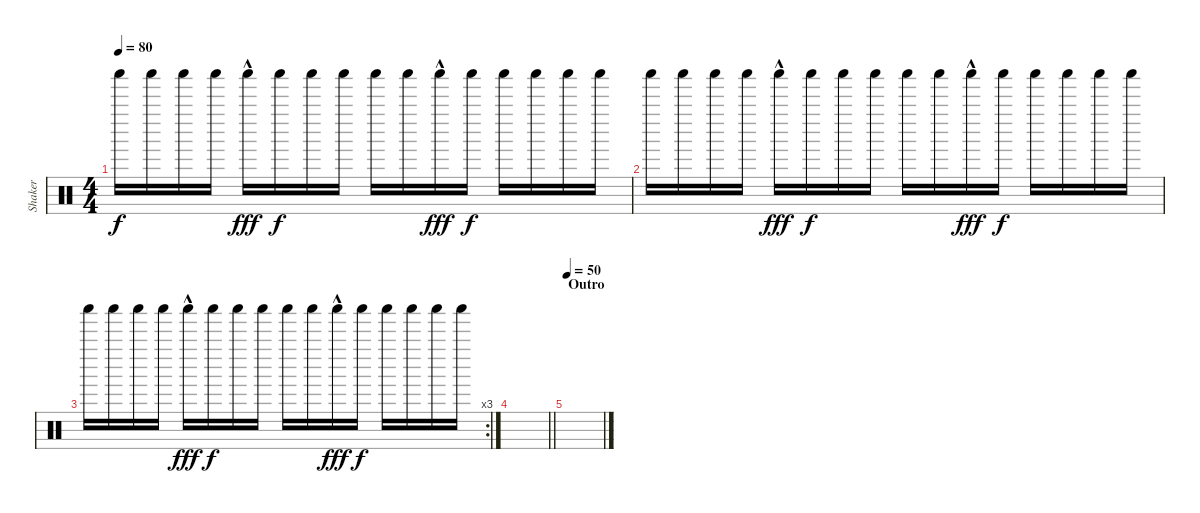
\track ("Shaker" "Shaker") {instrument percussion}
\staff {score}
\articulation defaults
\ts (4 4)
\tempo 80
\clef neutral
\ks c "Shaker (hit)".16{dy f} "Shaker (hit)".16 "Shaker (hit)".16 "Shaker (hit)".16 "Shaker (hit)"{hac}.16{dy fff} "Shaker (hit)".16{dy f} "Shaker (hit)".16 "Shaker (hit)".16 "Shaker (hit)".16 "Shaker (hit)".16 "Shaker (hit)"{hac}.16{dy fff} "Shaker (hit)".16{dy f} "Shaker (hit)".16 "Shaker (hit)".16 "Shaker (hit)".16 "Shaker (hit)".16
|
"Shaker (hit)".16 "Shaker (hit)".16 "Shaker (hit)".16 "Shaker (hit)".16 "Shaker (hit)"{hac}.16{dy fff} "Shaker (hit)".16{dy f} "Shaker (hit)".16 "Shaker (hit)".16 "Shaker (hit)".16 "Shaker (hit)".16 "Shaker (hit)"{hac}.16{dy fff} "Shaker (hit)".16{dy f} "Shaker (hit)".16 "Shaker (hit)".16 "Shaker (hit)".16 "Shaker (hit)".16 |
\rc 3 "Shaker (hit)".16 "Shaker (hit)".16 "Shaker (hit)".16 "Shaker (hit)".16 "Shaker (hit)"{hac}.16{dy fff} "Shaker (hit)".16{dy f} "Shaker (hit)".16 "Shaker (hit)".16 "Shaker (hit)".16 "Shaker (hit)".16 "Shaker (hit)"{hac}.16{dy fff} "Shaker (hit)".16{dy f} "Shaker (hit)".16 "Shaker (hit)".16 "Shaker (hit)".16 "Shaker (hit)".16
|
\barLineRight lightlight
|
\section ("" "Outro")
\tempo 50
